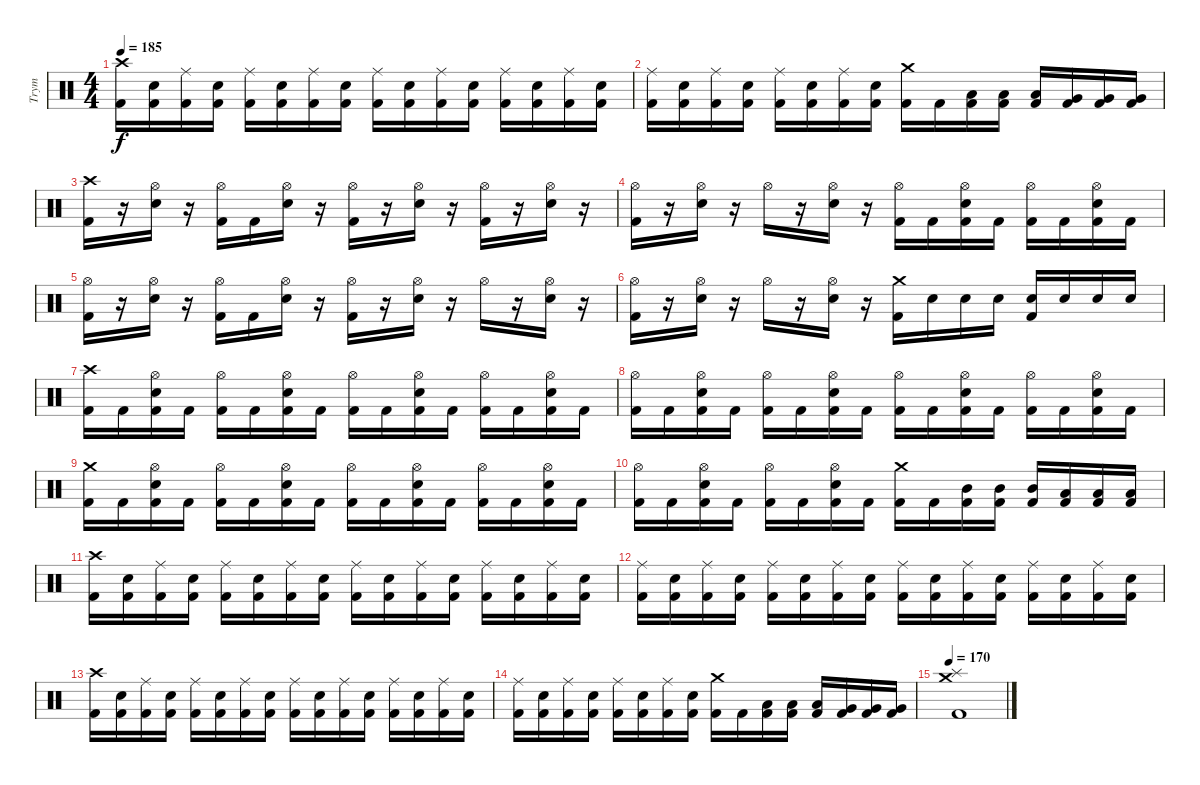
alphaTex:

\track ("Trym" "Trym") {instrument percussion}
\staff {score}
\articulation defaults
\ts (4 4)
\tempo 185
\clef neutral
\ks c
("Kick (hit) 2" "Crash high (hit)").16{dy f} ("Kick (hit) 2" "Electric Snare (hit)").16 ("Kick (hit) 2" "Ride (middle)").16 ("Kick (hit) 2" "Electric Snare (hit)").16 ("Kick (hit) 2" "Ride (middle)").16 ("Kick (hit) 2" "Electric Snare (hit)").16 ("Kick (hit) 2" "Ride (middle)").16 ("Kick (hit) 2" "Electric Snare (hit)").16 ("Kick (hit) 2" "Ride (middle)").16 ("Kick (hit) 2" "Electric Snare (hit)").16 ("Kick (hit) 2" "Ride (middle)").16 ("Kick (hit) 2" "Electric Snare (hit)").16 ("Kick (hit) 2" "Ride (middle)").16 ("Kick (hit) 2" "Electric Snare (hit)").16 ("Kick (hit) 2" "Ride (middle)").16 ("Kick (hit) 2" "Electric Snare (hit)").16 |
("Kick (hit) 2" "Ride (middle)").16 ("Kick (hit) 2" "Electric Snare (hit)").16 ("Kick (hit) 2" "Ride (middle)").16 ("Kick (hit) 2" "Electric Snare (hit)").16 ("Kick (hit) 2" "Ride (middle)").16 ("Kick (hit) 2" "Electric Snare (hit)").16 ("Kick (hit) 2" "Ride (middle)").16 ("Kick (hit) 2" "Electric Snare (hit)").16 ("Kick (hit) 2" "Crash medium (hit)").16 "Kick (hit) 2".16 ("Kick (hit) 2" "Low Tom (hit)").16 ("Kick (hit) 2" "Low Tom (hit)").16 ("Kick (hit) 2" "Low Tom (hit)").16 ("Kick (hit) 2" "Very Low Tom (hit)").16 ("Kick (hit) 2" "Very Low Tom (hit)").16 ("Kick (hit) 2" "Very Low Tom (hit)").16 |
("Kick (hit) 2" "Crash high (hit)").16 r.16 ("Electric Snare (hit)" "Hi-Hat (open)").16 r.16 ("Kick (hit) 2" "Hi-Hat (open)").16 "Kick (hit) 2".16 ("Electric Snare (hit)" "Hi-Hat (open)").16 r.16 ("Kick (hit) 2" "Hi-Hat (open)").16 r.16 ("Electric Snare (hit)" "Hi-Hat (open)").16 r.16 ("Kick (hit) 2" "Hi-Hat (open)").16 r.16 ("Electric Snare (hit)" "Hi-Hat (open)").16 r.16 |
("Kick (hit) 2" "Hi-Hat (open)").16 r.16 ("Electric Snare (hit)" "Hi-Hat (open)").16 r.16 "Hi-Hat (open)".16 r.16 ("Electric Snare (hit)" "Hi-Hat (open)").16 r.16 ("Kick (hit) 2" "Hi-Hat (open)").16 "Kick (hit) 2".16 ("Kick (hit) 2" "Electric Snare (hit)" "Hi-Hat (open)").16 "Kick (hit) 2".16 ("Kick (hit) 2" "Hi-Hat (open)").16 "Kick (hit) 2".16 ("Kick (hit) 2" "Electric Snare (hit)" "Hi-Hat (open)").16 "Kick (hit) 2".16 |
("Kick (hit) 2" "Hi-Hat (open)").16 r.16 ("Electric Snare (hit)" "Hi-Hat (open)").16 r.16 ("Kick (hit) 2" "Hi-Hat (open)").16 "Kick (hit) 2".16 ("Electric Snare (hit)" "Hi-Hat (open)").16 r.16 ("Kick (hit) 2" "Hi-Hat (open)").16 r.16 ("Electric Snare (hit)" "Hi-Hat (open)").16 r.16 "Hi-Hat (open)".16 r.16 ("Electric Snare (hit)" "Hi-Hat (open)").16 r.16 |
("Kick (hit) 2" "Hi-Hat (open)").16 r.16 ("Electric Snare (hit)" "Hi-Hat (open)").16 r.16 "Hi-Hat (open)".16 r.16 ("Electric Snare (hit)" "Hi-Hat (open)").16 r.16 ("Kick (hit) 2" "Crash medium (hit)").16 "Electric Snare (hit)".16 "Electric Snare (hit)".16 "Electric Snare (hit)".16 ("Kick (hit) 2" "Electric Snare (hit)").16 "Electric Snare (hit)".16 "Electric Snare (hit)".16 "Electric Snare (hit)".16 |
("Kick (hit) 2" "Crash high (hit)").16 "Kick (hit) 2".16 ("Kick (hit) 2" "Electric Snare (hit)" "Hi-Hat (open)").16 "Kick (hit) 2".16 ("Kick (hit) 2" "Hi-Hat (open)").16 "Kick (hit) 2".16 ("Kick (hit) 2" "Electric Snare (hit)" "Hi-Hat (open)").16 "Kick (hit) 2".16 ("Kick (hit) 2" "Hi-Hat (open)").16 "Kick (hit) 2".16 ("Kick (hit) 2" "Electric Snare (hit)" "Hi-Hat (open)").16 "Kick (hit) 2".16 ("Kick (hit) 2" "Hi-Hat (open)").16 "Kick (hit) 2".16 ("Kick (hit) 2" "Electric Snare (hit)" "Hi-Hat (open)").16 "Kick (hit) 2".16 |
("Kick (hit) 2" "Hi-Hat (open)").16 "Kick (hit) 2".16 ("Kick (hit) 2" "Electric Snare (hit)" "Hi-Hat (open)").16 "Kick (hit) 2".16 ("Kick (hit) 2" "Hi-Hat (open)").16 "Kick (hit) 2".16 ("Kick (hit) 2" "Electric Snare (hit)" "Hi-Hat (open)").16 "Kick (hit) 2".16 ("Kick (hit) 2" "Hi-Hat (open)").16 "Kick (hit) 2".16 ("Kick (hit) 2" "Electric Snare (hit)" "Hi-Hat (open)").16 "Kick (hit) 2".16 ("Kick (hit) 2" "Hi-Hat (open)").16 "Kick (hit) 2".16 ("Kick (hit) 2" "Electric Snare (hit)" "Hi-Hat (open)").16 "Kick (hit) 2".16 |
("Kick (hit) 2" "Crash medium (hit)").16 "Kick (hit) 2".16 ("Kick (hit) 2" "Electric Snare (hit)" "Hi-Hat (open)").16 "Kick (hit) 2".16 ("Kick (hit) 2" "Hi-Hat (open)").16 "Kick (hit) 2".16 ("Kick (hit) 2" "Electric Snare (hit)" "Hi-Hat (open)").16 "Kick (hit) 2".16 ("Kick (hit) 2" "Hi-Hat (open)").16 "Kick (hit) 2".16 ("Kick (hit) 2" "Electric Snare (hit)" "Hi-Hat (open)").16 "Kick (hit) 2".16 ("Kick (hit) 2" "Hi-Hat (open)").16 "Kick (hit) 2".16 ("Kick (hit) 2" "Electric Snare (hit)" "Hi-Hat (open)").16 "Kick (hit) 2".16 |
("Kick (hit) 2" "Hi-Hat (open)").16 "Kick (hit) 2".16 ("Kick (hit) 2" "Electric Snare (hit)" "Hi-Hat (open)").16 "Kick (hit) 2".16 ("Kick (hit) 2" "Hi-Hat (open)").16 "Kick (hit) 2".16 ("Kick (hit) 2" "Electric Snare (hit)" "Hi-Hat (open)").16 "Kick (hit) 2".16 ("Kick (hit) 2" "Crash medium (hit)").16 "Kick (hit) 2".16 ("Kick (hit) 2" "Mid Tom (hit)").16 ("Kick (hit) 2" "Mid Tom (hit)").16 ("Kick (hit) 2" "Mid Tom (hit)").16 ("Kick (hit) 2" "Low Tom (hit)").16 ("Kick (hit) 2" "Low Tom (hit)").16 ("Kick (hit) 2" "Low Tom (hit)").16 |
("Kick (hit) 2" "Crash high (hit)").16 ("Kick (hit) 2" "Electric Snare (hit)").16 ("Kick (hit) 2" "Ride (middle)").16 ("Kick (hit) 2" "Electric Snare (hit)").16 ("Kick (hit) 2" "Ride (middle)").16 ("Kick (hit) 2" "Electric Snare (hit)").16 ("Kick (hit) 2" "Ride (middle)").16 ("Kick (hit) 2" "Electric Snare (hit)").16 ("Kick (hit) 2" "Ride (middle)").16 ("Kick (hit) 2" "Electric Snare (hit)").16 ("Kick (hit) 2" "Ride (middle)").16 ("Kick (hit) 2" "Electric Snare (hit)").16 ("Kick (hit) 2" "Ride (middle)").16 ("Kick (hit) 2" "Electric Snare (hit)").16 ("Kick (hit) 2" "Ride (middle)").16 ("Kick (hit) 2" "Electric Snare (hit)").16 |
("Kick (hit) 2" "Ride (middle)").16 ("Kick (hit) 2" "Electric Snare (hit)").16 ("Kick (hit) 2" "Ride (middle)").16 ("Kick (hit) 2" "Electric Snare (hit)").16 ("Kick (hit) 2" "Ride (middle)").16 ("Kick (hit) 2" "Electric Snare (hit)").16 ("Kick (hit) 2" "Ride (middle)").16 ("Kick (hit) 2" "Electric Snare (hit)").16 ("Kick (hit) 2" "Ride (middle)").16 ("Kick (hit) 2" "Electric Snare (hit)").16 ("Kick (hit) 2" "Ride (middle)").16 ("Kick (hit) 2" "Electric Snare (hit)").16 ("Kick (hit) 2" "Ride (middle)").16 ("Kick (hit) 2" "Electric Snare (hit)").16 ("Kick (hit) 2" "Ride (middle)").16 ("Kick (hit) 2" "Electric Snare (hit)").16 |
("Kick (hit) 2" "Crash high (hit)").16 ("Kick (hit) 2" "Electric Snare (hit)").16 ("Kick (hit) 2" "Ride (middle)").16 ("Kick (hit) 2" "Electric Snare (hit)").16 ("Kick (hit) 2" "Ride (middle)").16 ("Kick (hit) 2" "Electric Snare (hit)").16 ("Kick (hit) 2" "Ride (middle)").16 ("Kick (hit) 2" "Electric Snare (hit)").16 ("Kick (hit) 2" "Ride (middle)").16 ("Kick (hit) 2" "Electric Snare (hit)").16 ("Kick (hit) 2" "Ride (middle)").16 ("Kick (hit) 2" "Electric Snare (hit)").16 ("Kick (hit) 2" "Ride (middle)").16 ("Kick (hit) 2" "Electric Snare (hit)").16 ("Kick (hit) 2" "Ride (middle)").16 ("Kick (hit) 2" "Electric Snare (hit)").16 |
("Kick (hit) 2" "Ride (middle)").16 ("Kick (hit) 2" "Electric Snare (hit)").16 ("Kick (hit) 2" "Ride (middle)").16 ("Kick (hit) 2" "Electric Snare (hit)").16 ("Kick (hit) 2" "Ride (middle)").16 ("Kick (hit) 2" "Electric Snare (hit)").16 ("Kick (hit) 2" "Ride (middle)").16 ("Kick (hit) 2" "Electric Snare (hit)").16 ("Kick (hit) 2" "Crash medium (hit)").16 "Kick (hit) 2".16 ("Kick (hit) 2" "Low Tom (hit)").16 ("Kick (hit) 2" "Low Tom (hit)").16 ("Kick (hit) 2" "Low Tom (hit)").16 ("Kick (hit) 2" "Very Low Tom (hit)").16 ("Kick (hit) 2" "Very Low Tom (hit)").16 ("Kick (hit) 2" "Very Low Tom (hit)").16 |
\tempo 170
("Kick (hit) 2" "Splash (hit)" "Crash medium (hit)").1
